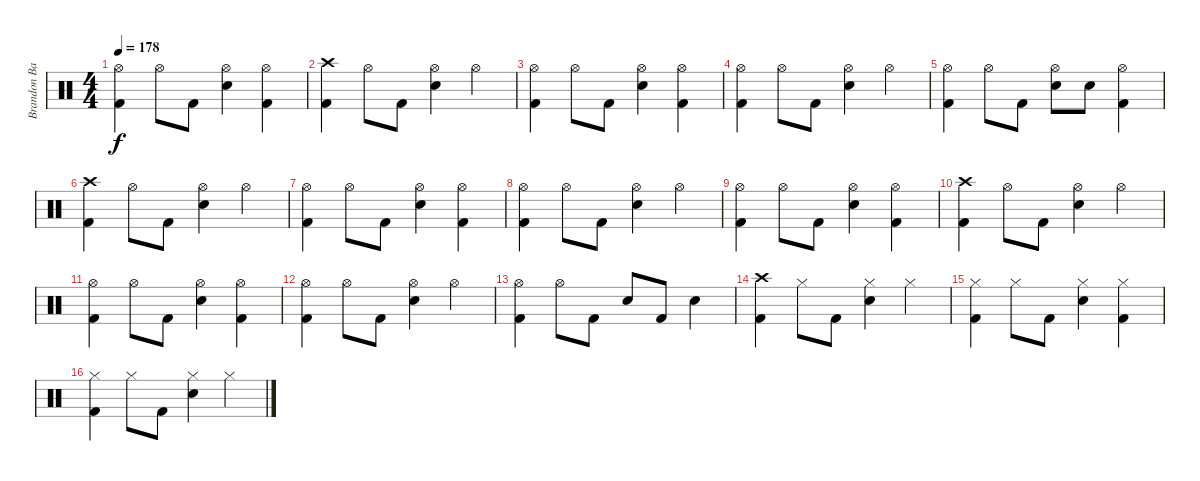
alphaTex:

\track ("Brandon Barnes - Drums" "Brandon Ba") {instrument percussion}
\staff {score}
\articulation defaults
\ts (4 4)
\tempo 178
\clef neutral
\ks c
("Kick (hit) 2" "Hi-Hat (open)").4{dy f} "Hi-Hat (open)".8 "Kick (hit) 2".8 ("Snare (hit) 2" "Hi-Hat (open)").4 ("Kick (hit) 2" "Hi-Hat (open)").4 |
("Crash high (hit)" "Kick (hit) 2").4 "Hi-Hat (open)".8 "Kick (hit) 2".8 ("Snare (hit) 2" "Hi-Hat (open)").4 "Hi-Hat (open)".4 |
("Kick (hit) 2" "Hi-Hat (open)").4 "Hi-Hat (open)".8 "Kick (hit) 2".8 ("Snare (hit) 2" "Hi-Hat (open)").4 ("Kick (hit) 2" "Hi-Hat (open)").4 |
("Kick (hit) 2" "Hi-Hat (open)").4 "Hi-Hat (open)".8 "Kick (hit) 2".8 ("Snare (hit) 2" "Hi-Hat (open)").4 "Hi-Hat (open)".4 |
("Kick (hit) 2" "Hi-Hat (open)").4 "Hi-Hat (open)".8 "Kick (hit) 2".8 ("Snare (hit) 2" "Hi-Hat (open)").8 "Snare (hit) 2".8 ("Kick (hit) 2" "Hi-Hat (open)").4 |
("Crash high (hit)" "Kick (hit) 2").4 "Hi-Hat (open)".8 "Kick (hit) 2".8 ("Snare (hit) 2" "Hi-Hat (open)").4 "Hi-Hat (open)".4 |
("Kick (hit) 2" "Hi-Hat (open)").4 "Hi-Hat (open)".8 "Kick (hit) 2".8 ("Snare (hit) 2" "Hi-Hat (open)").4 ("Kick (hit) 2" "Hi-Hat (open)").4 |
("Kick (hit) 2" "Hi-Hat (open)").4 "Hi-Hat (open)".8 "Kick (hit) 2".8 ("Snare (hit) 2" "Hi-Hat (open)").4 "Hi-Hat (open)".4 |
("Kick (hit) 2" "Hi-Hat (open)").4 "Hi-Hat (open)".8 "Kick (hit) 2".8 ("Snare (hit) 2" "Hi-Hat (open)").4 ("Kick (hit) 2" "Hi-Hat (open)").4 |
("Crash high (hit)" "Kick (hit) 2").4 "Hi-Hat (open)".8 "Kick (hit) 2".8 ("Snare (hit) 2" "Hi-Hat (open)").4 "Hi-Hat (open)".4 |
("Kick (hit) 2" "Hi-Hat (open)").4 "Hi-Hat (open)".8 "Kick (hit) 2".8 ("Snare (hit) 2" "Hi-Hat (open)").4 ("Kick (hit) 2" "Hi-Hat (open)").4 |
("Kick (hit) 2" "Hi-Hat (open)").4 "Hi-Hat (open)".8 "Kick (hit) 2".8 ("Snare (hit) 2" "Hi-Hat (open)").4 "Hi-Hat (open)".4 |
("Hi-Hat (open)" "Kick (hit) 2").4 "Hi-Hat (open)".8 "Kick (hit) 2".8 "Snare (hit) 2".8 "Kick (hit) 2".8 "Snare (hit) 2".4 |
("Crash high (hit)" "Kick (hit) 2").4 "Hi-Hat (closed)".8 "Kick (hit) 2".8 ("Snare (hit) 2" "Hi-Hat (closed)").4 "Hi-Hat (closed)".4 |
("Hi-Hat (closed)" "Kick (hit) 2").4 "Hi-Hat (closed)".8 "Kick (hit) 2".8 ("Snare (hit) 2" "Hi-Hat (closed)").4 ("Hi-Hat (closed)" "Kick (hit) 2").4 |
("Hi-Hat (closed)" "Kick (hit) 2").4 "Hi-Hat (closed)".8 "Kick (hit) 2".8 ("Snare (hit) 2" "Hi-Hat (closed)").4 "Hi-Hat (closed)".4
